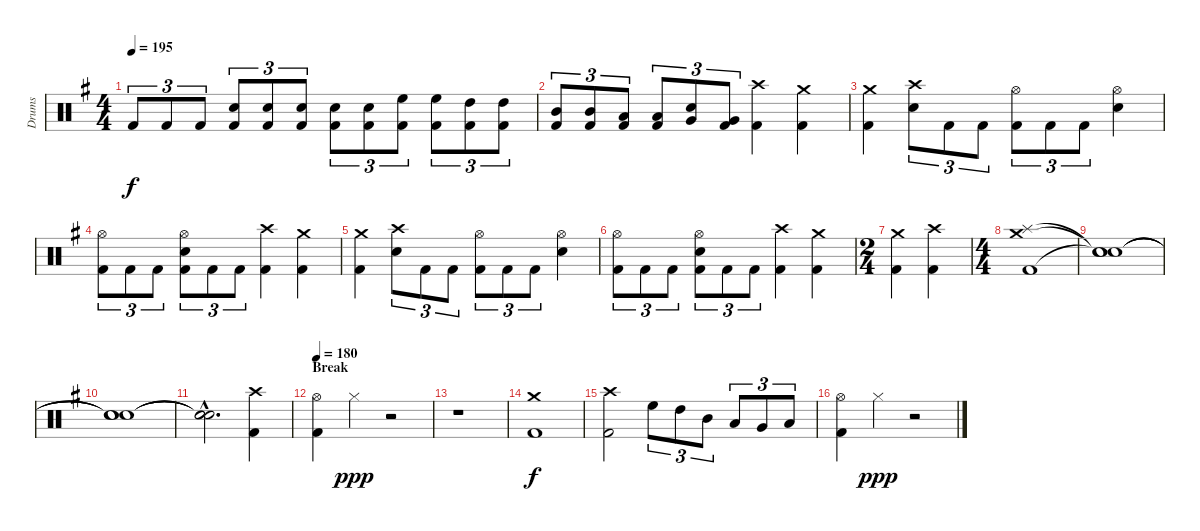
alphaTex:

\track ("Drums" "Drums") {instrument percussion}
\staff {score}
\articulation defaults
\ts (4 4)
\tempo 195
\clef neutral
\ks eminor "Kick (hit) 2".8{tu (3 2) dy f} "Kick (hit) 2".8{tu (3 2)} "Kick (hit) 2".8{tu (3 2)}
("Kick (hit) 2" "Electric Snare (hit)").8{tu (3 2)} ("Kick (hit) 2" "Electric Snare (hit)").8{tu (3 2)} ("Kick (hit) 2" "Electric Snare (hit)").8{tu (3 2)} ("Kick (hit) 2" "Electric Snare (hit)").8{tu (3 2)} ("Kick (hit) 2" "Electric Snare (hit)").8{tu (3 2)} ("Kick (hit) 2" "High Floor Tom (hit)").8{tu (3 2)} ("Kick (hit) 2" "High Floor Tom (hit)").8{tu (3 2)} ("Kick (hit) 2" "High Tom (hit)").8{tu (3 2)} ("Kick (hit) 2" "High Tom (hit)").8{tu (3 2)} |
("Kick (hit) 2" "Mid Tom (hit)").8{tu (3 2)} ("Kick (hit) 2" "Mid Tom (hit)").8{tu (3 2)} ("Kick (hit) 2" "Low Tom (hit)").8{tu (3 2)} ("Kick (hit) 2" "Low Tom (hit)").8{tu (3 2)} ("Snare (hit)" "Very Low Tom (hit)").8{tu (3 2)} ("Kick (hit) 2" "Very Low Tom (hit)").8{tu (3 2)} ("Kick (hit) 2" "Crash high (hit)").4 ("Kick (hit) 2" "Crash medium (hit)").4 |
("Kick (hit) 2" "Crash medium (hit)").4 ("Electric Snare (hit)" "Crash high (hit)").8{tu (3 2)} "Kick (hit) 2".8{tu (3 2)} "Kick (hit) 2".8{tu (3 2)} ("Kick (hit) 2" "Hi-Hat (open)").8{tu (3 2)} "Kick (hit) 2".8{tu (3 2)} "Kick (hit) 2".8{tu (3 2)} ("Electric Snare (hit)" "Hi-Hat (open)").4 |
("Kick (hit) 2" "Hi-Hat (open)").8{tu (3 2)} "Kick (hit) 2".8{tu (3 2)} "Kick (hit) 2".8{tu (3 2)} ("Kick (hit) 2" "Electric Snare (hit)" "Hi-Hat (open)").8{tu (3 2)} "Kick (hit) 2".8{tu (3 2)} "Kick (hit) 2".8{tu (3 2)} ("Kick (hit) 2" "Crash high (hit)").4 ("Kick (hit) 2" "Crash medium (hit)").4 |
("Kick (hit) 2" "Crash medium (hit)").4 ("Electric Snare (hit)" "Crash high (hit)").8{tu (3 2)} "Kick (hit) 2".8{tu (3 2)} "Kick (hit) 2".8{tu (3 2)} ("Kick (hit) 2" "Hi-Hat (open)").8{tu (3 2)} "Kick (hit) 2".8{tu (3 2)} "Kick (hit) 2".8{tu (3 2)} ("Electric Snare (hit)" "Hi-Hat (open)").4 |
("Kick (hit) 2" "Hi-Hat (open)").8{tu (3 2)} "Kick (hit) 2".8{tu (3 2)} "Kick (hit) 2".8{tu (3 2)} ("Kick (hit) 2" "Electric Snare (hit)" "Hi-Hat (open)").8{tu (3 2)} "Kick (hit) 2".8{tu (3 2)} "Kick (hit) 2".8{tu (3 2)} ("Kick (hit) 2" "Crash high (hit)").4 ("Kick (hit) 2" "Crash medium (hit)").4 |
\ts (2 4)
("Kick (hit) 2" "Crash medium (hit)").4 ("Kick (hit) 2" "Crash high (hit)").4 |
\ts (4 4)
("Kick (hit) 2" "Splash (hit)" "Crash medium (hit)").1 |
("Snare (hit)"{t} "Snare (hit)"{t} "Snare (hit)"{t}).1 |
("Snare (hit)"{t} "Snare (hit)"{t} "Snare (hit)"{t}).1 |
("Snare (hit)"{hac t} "Snare (hit)"{hac t} "Snare (hit)"{hac t}).2{d} ("Kick (hit) 2" "Crash high (hit)").4 |
\section ("" "Break")
\tempo 180
("Kick (hit) 2" "Hi-Hat (open)").4 "Hi-Hat (closed)".4{dy ppp} r.2 |
r.1 |
("Kick (hit) 2" "Crash medium (hit)").1{dy f} |
("Kick (hit) 2" "Crash high (hit)").2 "High Floor Tom (hit)".8{tu (3 2)} "High Tom (hit)".8{tu (3 2)} "Mid Tom (hit)".8{tu (3 2)} "Low Tom (hit)".8{tu (3 2)} "Very Low Tom (hit)".8{tu (3 2)} "Low Floor Tom (hit)".8{tu (3 2)} |
("Kick (hit) 2" "Hi-Hat (open)").4 "Hi-Hat (closed)".4{dy ppp} r.2
